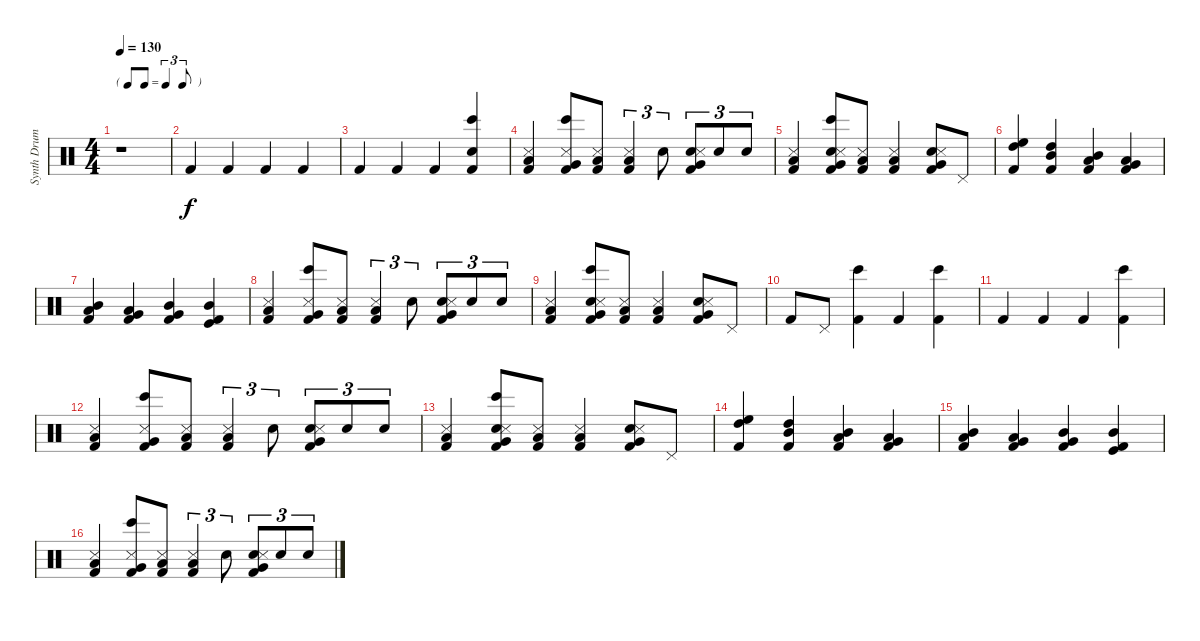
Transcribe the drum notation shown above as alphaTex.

\track ("Synth Drums (Alan Wilder)" "Synth Drum") {instrument percussion}
\staff {score}
\articulation defaults
\ts (4 4)
\tf triplet8th
\tempo 130
\clef neutral
\ks c
r.1{dy f} |
"Kick (hit) 2".4 "Kick (hit) 2".4 "Kick (hit) 2".4 "Kick (hit) 2".4 |
"Kick (hit) 2".4 "Kick (hit) 2".4 "Kick (hit) 2".4 ("Bongo High (hit)" "Electric Snare (hit)" "Kick (hit) 2").4 |
("Low Floor Tom (hit)" "Kick (hit) 2" "Snare (side stick) 3").4 ("Bongo High (hit)" "Very Low Tom (hit)" "Kick (hit) 2" "Snare (side stick) 3").8 ("Low Floor Tom (hit)" "Kick (hit) 2" "Snare (side stick) 3").8 ("Low Floor Tom (hit)" "Kick (hit) 2" "Snare (side stick) 3").4{tu (3 2)} "Snare (hit) 2".8{tu (3 2)} ("Snare (hit) 2" "Very Low Tom (hit)" "Kick (hit) 2" "Snare (side stick) 3").8{tu (3 2)} "Snare (hit) 2".8{tu (3 2)} "Snare (hit) 2".8{tu (3 2)} |
("Low Floor Tom (hit)" "Kick (hit) 2" "Snare (side stick) 3").4 ("Bongo High (hit)" "Electric Snare (hit)" "Very Low Tom (hit)" "Kick (hit) 2" "Snare (side stick) 3").8 ("Low Floor Tom (hit)" "Kick (hit) 2" "Snare (side stick) 3").8 ("Low Floor Tom (hit)" "Kick (hit) 2" "Snare (side stick) 3").4 ("Electric Snare (hit)" "Very Low Tom (hit)" "Kick (hit) 2" "Snare (side stick) 3").8 "Pedal Hi-Hat (hit)".8 |
("High Floor Tom (hit)" "High Tom (hit)" "Kick (hit) 2").4 ("High Tom (hit)" "Mid Tom (hit)" "Kick (hit) 2").4 ("Mid Tom (hit)" "Low Tom (hit)" "Kick (hit) 2").4 ("Low Tom (hit)" "Very Low Tom (hit)" "Kick (hit) 2").4 |
("Mid Tom (hit)" "Low Tom (hit)" "Kick (hit) 2").4 ("Low Tom (hit)" "Very Low Tom (hit)" "Kick (hit) 2").4 ("Very Low Tom (hit)" "Mid Tom (hit)" "Kick (hit) 2").4 ("Mid Tom (hit)" "Kick (hit)" "Kick (hit) 2").4 |
("Low Floor Tom (hit)" "Kick (hit) 2" "Snare (side stick) 3").4 ("Bongo High (hit)" "Very Low Tom (hit)" "Kick (hit) 2" "Snare (side stick) 3").8 ("Low Floor Tom (hit)" "Kick (hit) 2" "Snare (side stick) 3").8 ("Low Floor Tom (hit)" "Kick (hit) 2" "Snare (side stick) 3").4{tu (3 2)} "Snare (hit) 2".8{tu (3 2)} ("Snare (hit) 2" "Very Low Tom (hit)" "Kick (hit) 2" "Snare (side stick) 3").8{tu (3 2)} "Snare (hit) 2".8{tu (3 2)} "Snare (hit) 2".8{tu (3 2)} |
("Low Floor Tom (hit)" "Kick (hit) 2" "Snare (side stick) 3").4 ("Bongo High (hit)" "Electric Snare (hit)" "Very Low Tom (hit)" "Kick (hit) 2" "Snare (side stick) 3").8 ("Low Floor Tom (hit)" "Kick (hit) 2" "Snare (side stick) 3").8 ("Low Floor Tom (hit)" "Kick (hit) 2" "Snare (side stick) 3").4 ("Electric Snare (hit)" "Very Low Tom (hit)" "Kick (hit) 2" "Snare (side stick) 3").8 "Pedal Hi-Hat (hit)".8 |
"Kick (hit) 2".8 "Pedal Hi-Hat (hit)".8 ("Bongo High (hit)" "Kick (hit) 2").4 "Kick (hit) 2".4 ("Bongo High (hit)" "Kick (hit) 2").4 |
"Kick (hit) 2".4 "Kick (hit) 2".4 "Kick (hit) 2".4 ("Bongo High (hit)" "Kick (hit) 2").4 |
("Low Floor Tom (hit)" "Kick (hit) 2" "Snare (side stick) 3").4 ("Bongo High (hit)" "Very Low Tom (hit)" "Kick (hit) 2" "Snare (side stick) 3").8 ("Low Floor Tom (hit)" "Kick (hit) 2" "Snare (side stick) 3").8 ("Low Floor Tom (hit)" "Kick (hit) 2" "Snare (side stick) 3").4{tu (3 2)} "Snare (hit) 2".8{tu (3 2)} ("Snare (hit) 2" "Very Low Tom (hit)" "Kick (hit) 2" "Snare (side stick) 3").8{tu (3 2)} "Snare (hit) 2".8{tu (3 2)} "Snare (hit) 2".8{tu (3 2)} |
("Low Floor Tom (hit)" "Kick (hit) 2" "Snare (side stick) 3").4 ("Bongo High (hit)" "Electric Snare (hit)" "Very Low Tom (hit)" "Kick (hit) 2" "Snare (side stick) 3").8 ("Low Floor Tom (hit)" "Kick (hit) 2" "Snare (side stick) 3").8 ("Low Floor Tom (hit)" "Kick (hit) 2" "Snare (side stick) 3").4 ("Electric Snare (hit)" "Very Low Tom (hit)" "Kick (hit) 2" "Snare (side stick) 3").8 "Pedal Hi-Hat (hit)".8 |
("High Floor Tom (hit)" "High Tom (hit)" "Kick (hit) 2").4 ("High Tom (hit)" "Mid Tom (hit)" "Kick (hit) 2").4 ("Mid Tom (hit)" "Low Tom (hit)" "Kick (hit) 2").4 ("Low Tom (hit)" "Very Low Tom (hit)" "Kick (hit) 2").4 |
("Mid Tom (hit)" "Low Tom (hit)" "Kick (hit) 2").4 ("Low Tom (hit)" "Very Low Tom (hit)" "Kick (hit) 2").4 ("Very Low Tom (hit)" "Mid Tom (hit)" "Kick (hit) 2").4 ("Mid Tom (hit)" "Kick (hit)" "Kick (hit) 2").4 |
("Low Floor Tom (hit)" "Kick (hit) 2" "Snare (side stick) 3").4 ("Bongo High (hit)" "Very Low Tom (hit)" "Kick (hit) 2" "Snare (side stick) 3").8 ("Low Floor Tom (hit)" "Kick (hit) 2" "Snare (side stick) 3").8 ("Low Floor Tom (hit)" "Kick (hit) 2" "Snare (side stick) 3").4{tu (3 2)} "Snare (hit) 2".8{tu (3 2)} ("Snare (hit) 2" "Very Low Tom (hit)" "Kick (hit) 2" "Snare (side stick) 3").8{tu (3 2)} "Snare (hit) 2".8{tu (3 2)} "Snare (hit) 2".8{tu (3 2)}
